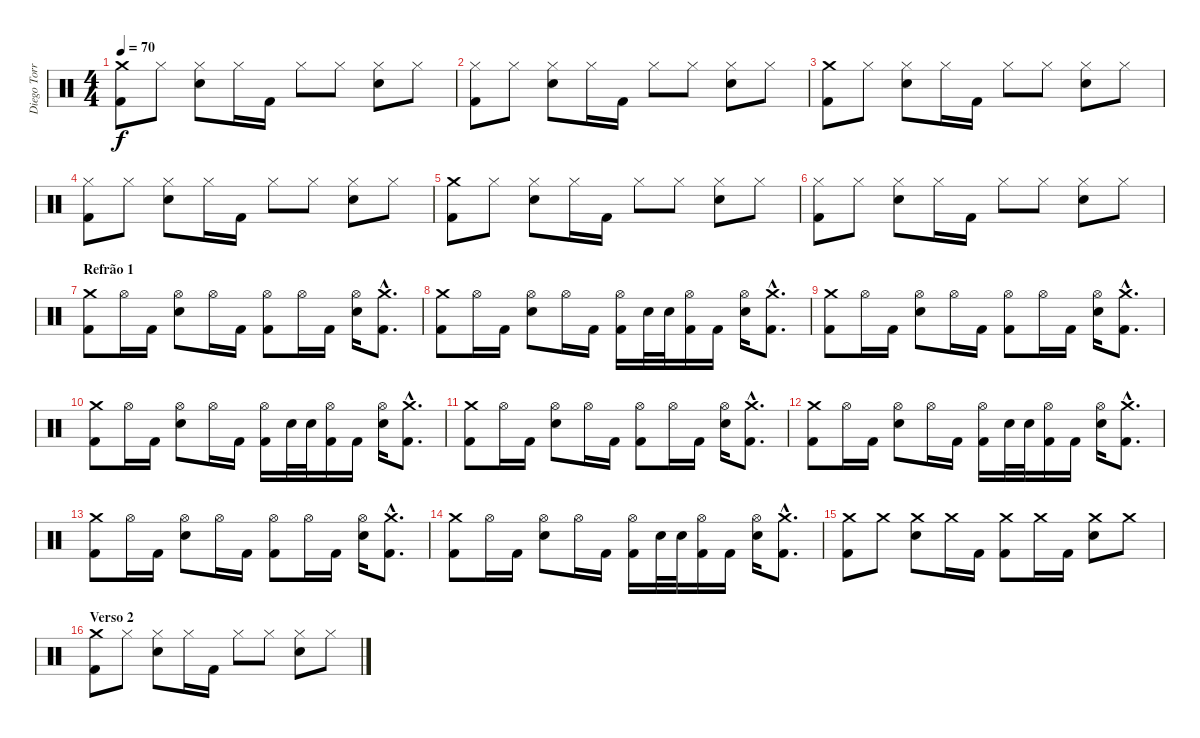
\track ("Diego Torres [Bateria]" "Diego Torr") {instrument percussion}
\staff {score}
\articulation defaults
\ts (4 4)
\tempo 70
\clef neutral
\ks c
("Crash medium (hit)" "Kick (hit) 2").8{dy f} "Hi-Hat (closed)".8 ("Hi-Hat (closed)" "Electric Snare (hit)").8 "Hi-Hat (closed)".16 "Kick (hit) 2".16 "Hi-Hat (closed)".8 "Hi-Hat (closed)".8 ("Hi-Hat (closed)" "Electric Snare (hit)").8 "Hi-Hat (closed)".8 |
("Hi-Hat (closed)" "Kick (hit) 2").8 "Hi-Hat (closed)".8 ("Hi-Hat (closed)" "Electric Snare (hit)").8 "Hi-Hat (closed)".16 "Kick (hit) 2".16 "Hi-Hat (closed)".8 "Hi-Hat (closed)".8 ("Hi-Hat (closed)" "Electric Snare (hit)").8 "Hi-Hat (closed)".8 |
("Crash medium (hit)" "Kick (hit) 2").8 "Hi-Hat (closed)".8 ("Hi-Hat (closed)" "Electric Snare (hit)").8 "Hi-Hat (closed)".16 "Kick (hit) 2".16 "Hi-Hat (closed)".8 "Hi-Hat (closed)".8 ("Hi-Hat (closed)" "Electric Snare (hit)").8 "Hi-Hat (closed)".8 |
("Hi-Hat (closed)" "Kick (hit) 2").8 "Hi-Hat (closed)".8 ("Hi-Hat (closed)" "Electric Snare (hit)").8 "Hi-Hat (closed)".16 "Kick (hit) 2".16 "Hi-Hat (closed)".8 "Hi-Hat (closed)".8 ("Hi-Hat (closed)" "Electric Snare (hit)").8 "Hi-Hat (closed)".8 |
("Crash medium (hit)" "Kick (hit) 2").8 "Hi-Hat (closed)".8 ("Hi-Hat (closed)" "Electric Snare (hit)").8 "Hi-Hat (closed)".16 "Kick (hit) 2".16 "Hi-Hat (closed)".8 "Hi-Hat (closed)".8 ("Hi-Hat (closed)" "Electric Snare (hit)").8 "Hi-Hat (closed)".8 |
("Hi-Hat (closed)" "Kick (hit) 2").8 "Hi-Hat (closed)".8 ("Hi-Hat (closed)" "Electric Snare (hit)").8 "Hi-Hat (closed)".16 "Kick (hit) 2".16 "Hi-Hat (closed)".8 "Hi-Hat (closed)".8 ("Hi-Hat (closed)" "Electric Snare (hit)").8 "Hi-Hat (closed)".8 |
\section ("" "Refrão 1")
("Crash medium (hit)" "Kick (hit) 2").8 "Hi-Hat (open)".16 "Kick (hit) 2".16 ("Hi-Hat (open)" "Electric Snare (hit)").8 "Hi-Hat (open)".16 "Kick (hit) 2".16 ("Hi-Hat (open)" "Kick (hit) 2").8 "Hi-Hat (open)".16 "Kick (hit) 2".16 ("Hi-Hat (open)" "Electric Snare (hit)").16 ("Crash medium (hit)"{hac} "Kick (hit) 2"{hac}).8{d} |
("Crash medium (hit)" "Kick (hit) 2").8 "Hi-Hat (open)".16 "Kick (hit) 2".16 ("Hi-Hat (open)" "Electric Snare (hit)").8 "Hi-Hat (open)".16 "Kick (hit) 2".16 ("Hi-Hat (open)" "Kick (hit) 2").16 "Electric Snare (hit)".32 "Electric Snare (hit)".32 ("Hi-Hat (open)" "Kick (hit) 2").16 "Kick (hit) 2".16 ("Hi-Hat (open)" "Electric Snare (hit)").16 ("Crash medium (hit)"{hac} "Kick (hit) 2"{hac}).8{d} |
("Crash medium (hit)" "Kick (hit) 2").8 "Hi-Hat (open)".16 "Kick (hit) 2".16 ("Hi-Hat (open)" "Electric Snare (hit)").8 "Hi-Hat (open)".16 "Kick (hit) 2".16 ("Hi-Hat (open)" "Kick (hit) 2").8 "Hi-Hat (open)".16 "Kick (hit) 2".16 ("Hi-Hat (open)" "Electric Snare (hit)").16 ("Crash medium (hit)"{hac} "Kick (hit) 2"{hac}).8{d} |
("Crash medium (hit)" "Kick (hit) 2").8 "Hi-Hat (open)".16 "Kick (hit) 2".16 ("Hi-Hat (open)" "Electric Snare (hit)").8 "Hi-Hat (open)".16 "Kick (hit) 2".16 ("Hi-Hat (open)" "Kick (hit) 2").16 "Electric Snare (hit)".32 "Electric Snare (hit)".32 ("Hi-Hat (open)" "Kick (hit) 2").16 "Kick (hit) 2".16 ("Hi-Hat (open)" "Electric Snare (hit)").16 ("Crash medium (hit)"{hac} "Kick (hit) 2"{hac}).8{d} |
("Crash medium (hit)" "Kick (hit) 2").8 "Hi-Hat (open)".16 "Kick (hit) 2".16 ("Hi-Hat (open)" "Electric Snare (hit)").8 "Hi-Hat (open)".16 "Kick (hit) 2".16 ("Hi-Hat (open)" "Kick (hit) 2").8 "Hi-Hat (open)".16 "Kick (hit) 2".16 ("Hi-Hat (open)" "Electric Snare (hit)").16 ("Crash medium (hit)"{hac} "Kick (hit) 2"{hac}).8{d} |
("Crash medium (hit)" "Kick (hit) 2").8 "Hi-Hat (open)".16 "Kick (hit) 2".16 ("Hi-Hat (open)" "Electric Snare (hit)").8 "Hi-Hat (open)".16 "Kick (hit) 2".16 ("Hi-Hat (open)" "Kick (hit) 2").16 "Electric Snare (hit)".32 "Electric Snare (hit)".32 ("Hi-Hat (open)" "Kick (hit) 2").16 "Kick (hit) 2".16 ("Hi-Hat (open)" "Electric Snare (hit)").16 ("Crash medium (hit)"{hac} "Kick (hit) 2"{hac}).8{d} |
("Crash medium (hit)" "Kick (hit) 2").8 "Hi-Hat (open)".16 "Kick (hit) 2".16 ("Hi-Hat (open)" "Electric Snare (hit)").8 "Hi-Hat (open)".16 "Kick (hit) 2".16 ("Hi-Hat (open)" "Kick (hit) 2").8 "Hi-Hat (open)".16 "Kick (hit) 2".16 ("Hi-Hat (open)" "Electric Snare (hit)").16 ("Crash medium (hit)"{hac} "Kick (hit) 2"{hac}).8{d} |
("Crash medium (hit)" "Kick (hit) 2").8 "Hi-Hat (open)".16 "Kick (hit) 2".16 ("Hi-Hat (open)" "Electric Snare (hit)").8 "Hi-Hat (open)".16 "Kick (hit) 2".16 ("Hi-Hat (open)" "Kick (hit) 2").16 "Electric Snare (hit)".32 "Electric Snare (hit)".32 ("Hi-Hat (open)" "Kick (hit) 2").16 "Kick (hit) 2".16 ("Hi-Hat (open)" "Electric Snare (hit)").16 ("Crash medium (hit)"{hac} "Kick (hit) 2"{hac}).8{d} |
("Crash medium (hit)" "Kick (hit) 2").8 "Crash medium (hit)".8 ("Crash medium (hit)" "Electric Snare (hit)").8 "Crash medium (hit)".16 "Kick (hit) 2".16 ("Crash medium (hit)" "Kick (hit) 2").8 "Crash medium (hit)".16 "Kick (hit) 2".16 ("Crash medium (hit)" "Electric Snare (hit)").8 "Crash medium (hit)".8 |
\section ("" "Verso 2")
("Crash medium (hit)" "Kick (hit) 2").8 "Hi-Hat (closed)".8 ("Hi-Hat (closed)" "Electric Snare (hit)").8 "Hi-Hat (closed)".16 "Kick (hit) 2".16 "Hi-Hat (closed)".8 "Hi-Hat (closed)".8 ("Hi-Hat (closed)" "Electric Snare (hit)").8 "Hi-Hat (closed)".8
